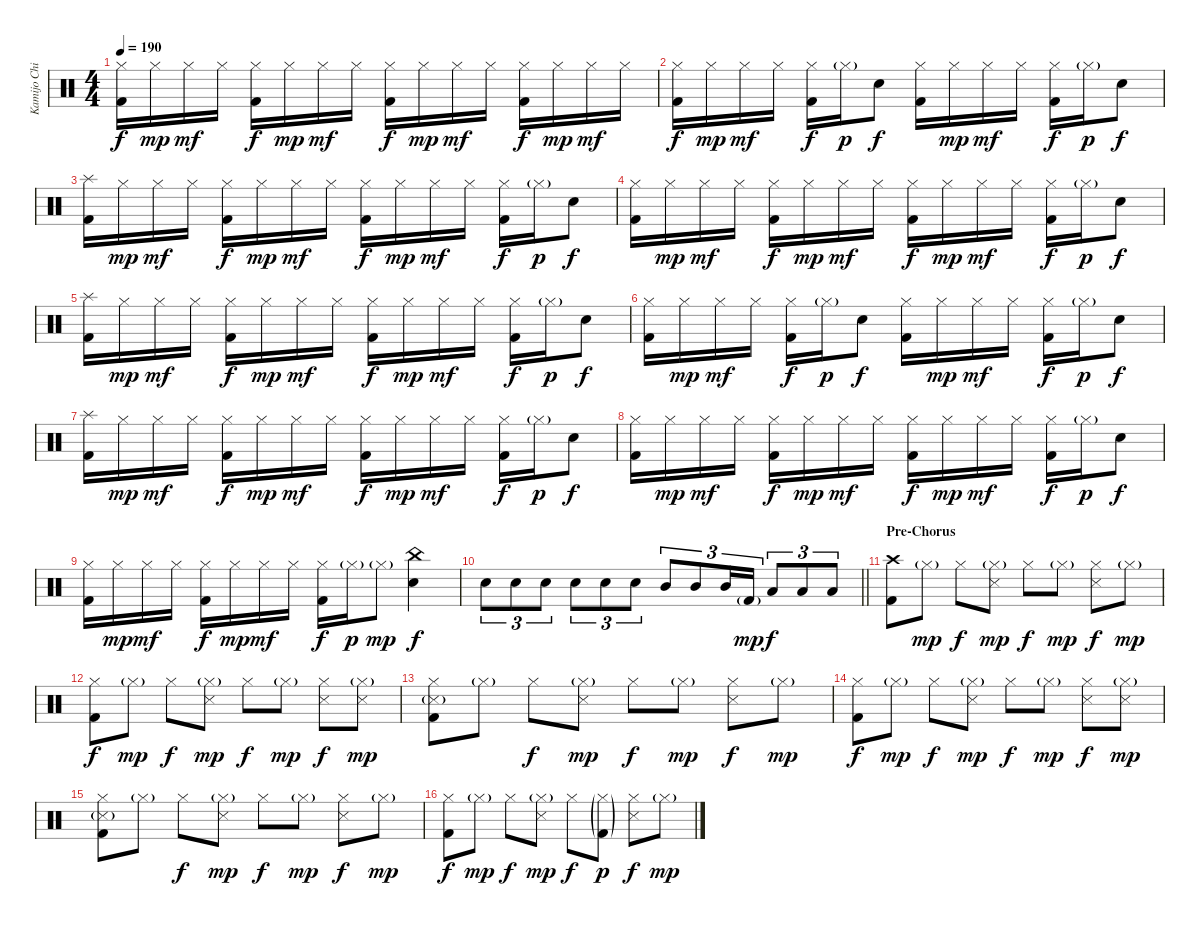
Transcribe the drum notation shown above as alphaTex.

\track ("Kamijo Chihiro" "Kamijo Chi") {instrument percussion}
\staff {score}
\articulation defaults
\ts (4 4)
\tempo 190
\clef neutral
\ks c
("Hi-Hat (closed)" "Kick (hit) 2").16{dy f} "Hi-Hat (closed)".16{dy mp} "Hi-Hat (closed)".16{dy mf} "Hi-Hat (closed)".16 ("Hi-Hat (closed)" "Kick (hit) 2").16{dy f} "Hi-Hat (closed)".16{dy mp} "Hi-Hat (closed)".16{dy mf} "Hi-Hat (closed)".16 ("Hi-Hat (closed)" "Kick (hit) 2").16{dy f} "Hi-Hat (closed)".16{dy mp} "Hi-Hat (closed)".16{dy mf} "Hi-Hat (closed)".16 ("Hi-Hat (closed)" "Kick (hit) 2").16{dy f} "Hi-Hat (closed)".16{dy mp} "Hi-Hat (closed)".16{dy mf} "Hi-Hat (closed)".16 |
("Hi-Hat (closed)" "Kick (hit) 2").16{dy f} "Hi-Hat (closed)".16{dy mp} "Hi-Hat (closed)".16{dy mf} "Hi-Hat (closed)".16 ("Hi-Hat (closed)" "Kick (hit) 2").16{dy f} "Hi-Hat (closed)"{g}.16{dy p} "Snare (hit) 2".8{dy f} ("Hi-Hat (closed)" "Kick (hit) 2").16 "Hi-Hat (closed)".16{dy mp} "Hi-Hat (closed)".16{dy mf} "Hi-Hat (closed)".16 ("Hi-Hat (closed)" "Kick (hit) 2").16{dy f} "Hi-Hat (closed)"{g}.16{dy p} "Snare (hit) 2".8{dy f} |
("Splash (hit)" "Kick (hit) 2").16 "Hi-Hat (closed)".16{dy mp} "Hi-Hat (closed)".16{dy mf} "Hi-Hat (closed)".16 ("Hi-Hat (closed)" "Kick (hit) 2").16{dy f} "Hi-Hat (closed)".16{dy mp} "Hi-Hat (closed)".16{dy mf} "Hi-Hat (closed)".16 ("Hi-Hat (closed)" "Kick (hit) 2").16{dy f} "Hi-Hat (closed)".16{dy mp} "Hi-Hat (closed)".16{dy mf} "Hi-Hat (closed)".16 ("Hi-Hat (closed)" "Kick (hit) 2").16{dy f} "Hi-Hat (closed)"{g}.16{dy p} "Snare (hit) 2".8{dy f} |
("Hi-Hat (closed)" "Kick (hit) 2").16 "Hi-Hat (closed)".16{dy mp} "Hi-Hat (closed)".16{dy mf} "Hi-Hat (closed)".16 ("Hi-Hat (closed)" "Kick (hit) 2").16{dy f} "Hi-Hat (closed)".16{dy mp} "Hi-Hat (closed)".16{dy mf} "Hi-Hat (closed)".16 ("Hi-Hat (closed)" "Kick (hit) 2").16{dy f} "Hi-Hat (closed)".16{dy mp} "Hi-Hat (closed)".16{dy mf} "Hi-Hat (closed)".16 ("Hi-Hat (closed)" "Kick (hit) 2").16{dy f} "Hi-Hat (closed)"{g}.16{dy p} "Snare (hit) 2".8{dy f} |
("Splash (hit)" "Kick (hit) 2").16 "Hi-Hat (closed)".16{dy mp} "Hi-Hat (closed)".16{dy mf} "Hi-Hat (closed)".16 ("Hi-Hat (closed)" "Kick (hit) 2").16{dy f} "Hi-Hat (closed)".16{dy mp} "Hi-Hat (closed)".16{dy mf} "Hi-Hat (closed)".16 ("Hi-Hat (closed)" "Kick (hit) 2").16{dy f} "Hi-Hat (closed)".16{dy mp} "Hi-Hat (closed)".16{dy mf} "Hi-Hat (closed)".16 ("Hi-Hat (closed)" "Kick (hit) 2").16{dy f} "Hi-Hat (closed)"{g}.16{dy p} "Snare (hit) 2".8{dy f} |
("Hi-Hat (closed)" "Kick (hit) 2").16 "Hi-Hat (closed)".16{dy mp} "Hi-Hat (closed)".16{dy mf} "Hi-Hat (closed)".16 ("Hi-Hat (closed)" "Kick (hit) 2").16{dy f} "Hi-Hat (closed)"{g}.16{dy p} "Snare (hit) 2".8{dy f} ("Hi-Hat (closed)" "Kick (hit) 2").16 "Hi-Hat (closed)".16{dy mp} "Hi-Hat (closed)".16{dy mf} "Hi-Hat (closed)".16 ("Hi-Hat (closed)" "Kick (hit) 2").16{dy f} "Hi-Hat (closed)"{g}.16{dy p} "Snare (hit) 2".8{dy f} |
("Splash (hit)" "Kick (hit) 2").16 "Hi-Hat (closed)".16{dy mp} "Hi-Hat (closed)".16{dy mf} "Hi-Hat (closed)".16 ("Hi-Hat (closed)" "Kick (hit) 2").16{dy f} "Hi-Hat (closed)".16{dy mp} "Hi-Hat (closed)".16{dy mf} "Hi-Hat (closed)".16 ("Hi-Hat (closed)" "Kick (hit) 2").16{dy f} "Hi-Hat (closed)".16{dy mp} "Hi-Hat (closed)".16{dy mf} "Hi-Hat (closed)".16 ("Hi-Hat (closed)" "Kick (hit) 2").16{dy f} "Hi-Hat (closed)"{g}.16{dy p} "Snare (hit) 2".8{dy f} |
("Hi-Hat (closed)" "Kick (hit) 2").16 "Hi-Hat (closed)".16{dy mp} "Hi-Hat (closed)".16{dy mf} "Hi-Hat (closed)".16 ("Hi-Hat (closed)" "Kick (hit) 2").16{dy f} "Hi-Hat (closed)".16{dy mp} "Hi-Hat (closed)".16{dy mf} "Hi-Hat (closed)".16 ("Hi-Hat (closed)" "Kick (hit) 2").16{dy f} "Hi-Hat (closed)".16{dy mp} "Hi-Hat (closed)".16{dy mf} "Hi-Hat (closed)".16 ("Hi-Hat (closed)" "Kick (hit) 2").16{dy f} "Hi-Hat (closed)"{g}.16{dy p} "Snare (hit) 2".8{dy f} |
("Hi-Hat (closed)" "Kick (hit) 2").16 "Hi-Hat (closed)".16{dy mp} "Hi-Hat (closed)".16{dy mf} "Hi-Hat (closed)".16 ("Hi-Hat (closed)" "Kick (hit) 2").16{dy f} "Hi-Hat (closed)".16{dy mp} "Hi-Hat (closed)".16{dy mf} "Hi-Hat (closed)".16 ("Hi-Hat (closed)" "Kick (hit) 2").16{dy f} "Hi-Hat (closed)"{g}.16{dy p} "Hi-Hat (closed)"{g}.8{dy mp} ("China (hit)" "Snare (hit) 2").4{dy f} |
\barLineRight lightlight "Snare (hit) 2".8{tu (3 2)} "Snare (hit) 2".8{tu (3 2)} "Snare (hit) 2".8{tu (3 2)} "Snare (hit) 2".8{tu (3 2)} "Snare (hit) 2".8{tu (3 2)} "Snare (hit) 2".8{tu (3 2)} "Mid Tom (hit)".8{tu (3 2)} "Mid Tom (hit)".8{tu (3 2)} "Mid Tom (hit)".16{tu (3 2)} "Kick (hit) 2"{g}.16{tu (3 2) dy mp} "Low Tom (hit)".8{tu (3 2) dy f} "Low Tom (hit)".8{tu (3 2)} "Low Tom (hit)".8{tu (3 2)}
|
\section ("" "Pre-Chorus")
("Crash high (hit)" "Kick (hit) 2").8 "Hi-Hat (closed)"{g}.8{dy mp} "Hi-Hat (closed)".8{dy f} ("Hi-Hat (closed)"{g} "Snare (side stick) 3").8{dy mp} "Hi-Hat (closed)".8{dy f} "Hi-Hat (closed)"{g}.8{dy mp} ("Hi-Hat (closed)" "Snare (side stick) 3").8{dy f} "Hi-Hat (closed)"{g}.8{dy mp} |
("Hi-Hat (closed)" "Kick (hit) 2").8{dy f} "Hi-Hat (closed)"{g}.8{dy mp} "Hi-Hat (closed)".8{dy f} ("Hi-Hat (closed)"{g} "Snare (side stick) 3").8{dy mp} "Hi-Hat (closed)".8{dy f} "Hi-Hat (closed)"{g}.8{dy mp} ("Hi-Hat (closed)" "Snare (side stick) 3").8{dy f} ("Hi-Hat (closed)"{g} "Snare (side stick) 3").8{dy mp} |
("Hi-Hat (closed)" "Snare (side stick) 3"{g} "Kick (hit) 2").8 "Hi-Hat (closed)"{g}.8 "Hi-Hat (closed)".8{dy f} ("Hi-Hat (closed)"{g} "Snare (side stick) 3").8{dy mp} "Hi-Hat (closed)".8{dy f} "Hi-Hat (closed)"{g}.8{dy mp} ("Hi-Hat (closed)" "Snare (side stick) 3").8{dy f} "Hi-Hat (closed)"{g}.8{dy mp} |
("Hi-Hat (closed)" "Kick (hit) 2").8{dy f} "Hi-Hat (closed)"{g}.8{dy mp} "Hi-Hat (closed)".8{dy f} ("Hi-Hat (closed)"{g} "Snare (side stick) 3").8{dy mp} "Hi-Hat (closed)".8{dy f} "Hi-Hat (closed)"{g}.8{dy mp} ("Hi-Hat (closed)" "Snare (side stick) 3").8{dy f} ("Hi-Hat (closed)"{g} "Snare (side stick) 3").8{dy mp} |
("Hi-Hat (closed)" "Snare (side stick) 3"{g} "Kick (hit) 2").8 "Hi-Hat (closed)"{g}.8 "Hi-Hat (closed)".8{dy f} ("Hi-Hat (closed)"{g} "Snare (side stick) 3").8{dy mp} "Hi-Hat (closed)".8{dy f} "Hi-Hat (closed)"{g}.8{dy mp} ("Hi-Hat (closed)" "Snare (side stick) 3").8{dy f} "Hi-Hat (closed)"{g}.8{dy mp} |
("Hi-Hat (closed)" "Kick (hit) 2").8{dy f} "Hi-Hat (closed)"{g}.8{dy mp} "Hi-Hat (closed)".8{dy f} ("Hi-Hat (closed)"{g} "Snare (side stick) 3").8{dy mp} "Hi-Hat (closed)".8{dy f} ("Hi-Hat (closed)"{g} "Kick (hit) 2"{g}).8{dy p} ("Hi-Hat (closed)" "Snare (side stick) 3").8{dy f} "Hi-Hat (closed)"{g}.8{dy mp}
